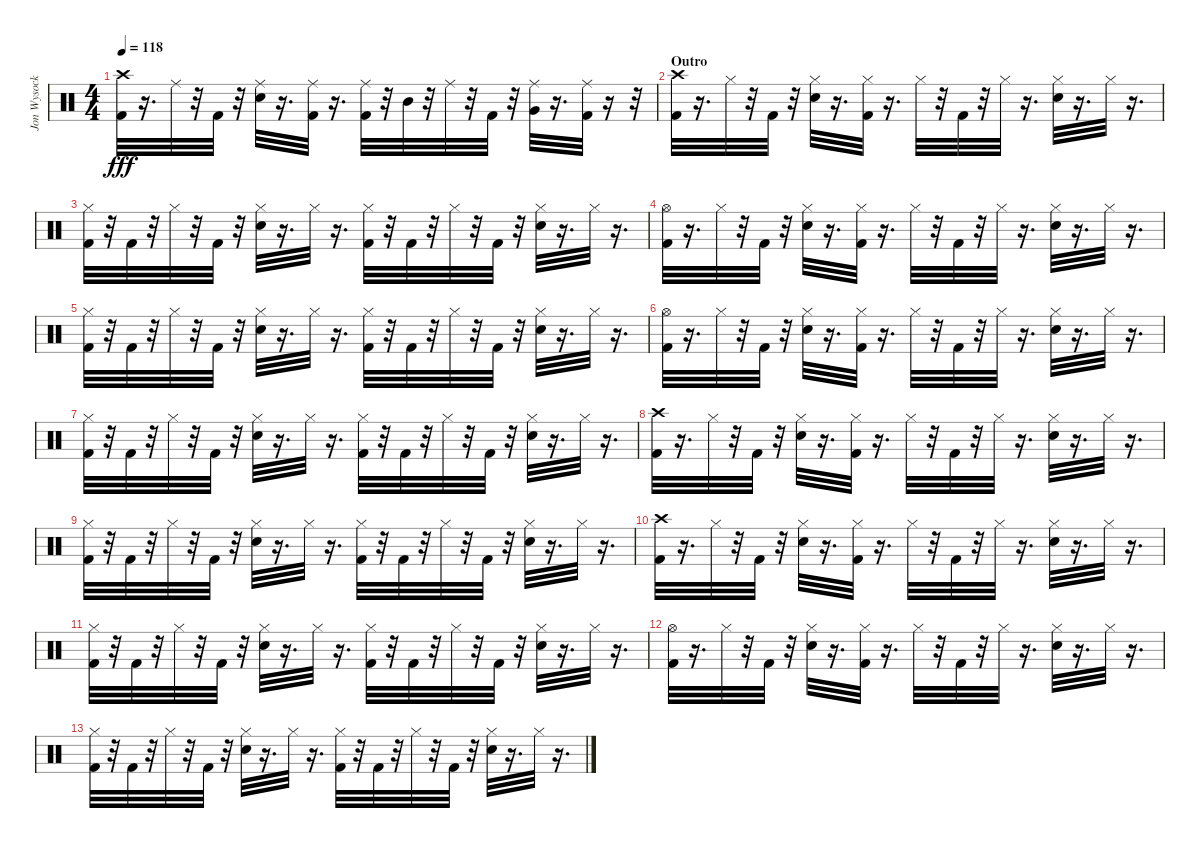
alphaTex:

\track ("Jon Wysocki - Drums" "Jon Wysock") {instrument percussion}
\staff {score}
\articulation defaults
\ts (4 4)
\tempo 118
\clef neutral
\ks c
("Crash high (hit)" "Kick (hit) 2").32{dy fff} r.16{d} "Ride (middle)".32 r.32 "Kick (hit) 2".32 r.32 ("Ride (middle)" "Electric Snare (hit)").32 r.16{d} ("Ride (middle)" "Kick (hit) 2").32 r.16{d} ("Ride (middle)" "Kick (hit) 2").32 r.32 "Mid Tom (hit)".32 r.32 "Ride (middle)".32 r.32 "Kick (hit) 2".32 r.32 ("Very Low Tom (hit)" "Ride (middle)").32 r.16{d} ("Kick (hit) 2" "Ride (middle)").32 r.16 r.32 |
\section ("" "Outro")
("Crash high (hit)" "Kick (hit) 2").32 r.16{d} "Hi-Hat (closed)".32 r.32 "Kick (hit) 2".32 r.32 ("Electric Snare (hit)" "Hi-Hat (closed)").32 r.16{d} ("Hi-Hat (closed)" "Kick (hit) 2").32 r.16{d} "Hi-Hat (closed)".32 r.32 "Kick (hit) 2".32 r.32 "Hi-Hat (closed)".32 r.16{d} ("Electric Snare (hit)" "Hi-Hat (closed)").32 r.16{d} "Hi-Hat (closed)".32 r.16{d} |
("Hi-Hat (closed)" "Kick (hit) 2").32 r.32 "Kick (hit) 2".32 r.32 "Hi-Hat (closed)".32 r.32 "Kick (hit) 2".32 r.32 ("Hi-Hat (closed)" "Electric Snare (hit)").32 r.16{d} "Hi-Hat (closed)".32 r.16{d} ("Hi-Hat (closed)" "Kick (hit) 2").32 r.32 "Kick (hit) 2".32 r.32 "Hi-Hat (closed)".32 r.32 "Kick (hit) 2".32 r.32 ("Hi-Hat (closed)" "Electric Snare (hit)").32 r.16{d} "Hi-Hat (closed)".32 r.16{d} |
("Kick (hit) 2" "Hi-Hat (open)").32 r.16{d} "Hi-Hat (closed)".32 r.32 "Kick (hit) 2".32 r.32 ("Electric Snare (hit)" "Hi-Hat (closed)").32 r.16{d} ("Hi-Hat (closed)" "Kick (hit) 2").32 r.16{d} "Hi-Hat (closed)".32 r.32 "Kick (hit) 2".32 r.32 "Hi-Hat (closed)".32 r.16{d} ("Electric Snare (hit)" "Hi-Hat (closed)").32 r.16{d} "Hi-Hat (closed)".32 r.16{d} |
("Hi-Hat (closed)" "Kick (hit) 2").32 r.32 "Kick (hit) 2".32 r.32 "Hi-Hat (closed)".32 r.32 "Kick (hit) 2".32 r.32 ("Hi-Hat (closed)" "Electric Snare (hit)").32 r.16{d} "Hi-Hat (closed)".32 r.16{d} ("Hi-Hat (closed)" "Kick (hit) 2").32 r.32 "Kick (hit) 2".32 r.32 "Hi-Hat (closed)".32 r.32 "Kick (hit) 2".32 r.32 ("Hi-Hat (closed)" "Electric Snare (hit)").32 r.16{d} "Hi-Hat (closed)".32 r.16{d} |
("Kick (hit) 2" "Hi-Hat (open)").32 r.16{d} "Hi-Hat (closed)".32 r.32 "Kick (hit) 2".32 r.32 ("Electric Snare (hit)" "Hi-Hat (closed)").32 r.16{d} ("Hi-Hat (closed)" "Kick (hit) 2").32 r.16{d} "Hi-Hat (closed)".32 r.32 "Kick (hit) 2".32 r.32 "Hi-Hat (closed)".32 r.16{d} ("Electric Snare (hit)" "Hi-Hat (closed)").32 r.16{d} "Hi-Hat (closed)".32 r.16{d} |
("Hi-Hat (closed)" "Kick (hit) 2").32 r.32 "Kick (hit) 2".32 r.32 "Hi-Hat (closed)".32 r.32 "Kick (hit) 2".32 r.32 ("Hi-Hat (closed)" "Electric Snare (hit)").32 r.16{d} "Hi-Hat (closed)".32 r.16{d} ("Hi-Hat (closed)" "Kick (hit) 2").32 r.32 "Kick (hit) 2".32 r.32 "Hi-Hat (closed)".32 r.32 "Kick (hit) 2".32 r.32 ("Hi-Hat (closed)" "Electric Snare (hit)").32 r.16{d} "Hi-Hat (closed)".32 r.16{d} |
("Crash high (hit)" "Kick (hit) 2").32 r.16{d} "Hi-Hat (closed)".32 r.32 "Kick (hit) 2".32 r.32 ("Electric Snare (hit)" "Hi-Hat (closed)").32 r.16{d} ("Hi-Hat (closed)" "Kick (hit) 2").32 r.16{d} "Hi-Hat (closed)".32 r.32 "Kick (hit) 2".32 r.32 "Hi-Hat (closed)".32 r.16{d} ("Electric Snare (hit)" "Hi-Hat (closed)").32 r.16{d} "Hi-Hat (closed)".32 r.16{d} |
("Hi-Hat (closed)" "Kick (hit) 2").32 r.32 "Kick (hit) 2".32 r.32 "Hi-Hat (closed)".32 r.32 "Kick (hit) 2".32 r.32 ("Hi-Hat (closed)" "Electric Snare (hit)").32 r.16{d} "Hi-Hat (closed)".32 r.16{d} ("Hi-Hat (closed)" "Kick (hit) 2").32 r.32 "Kick (hit) 2".32 r.32 "Hi-Hat (closed)".32 r.32 "Kick (hit) 2".32 r.32 ("Hi-Hat (closed)" "Electric Snare (hit)").32 r.16{d} "Hi-Hat (closed)".32 r.16{d} |
("Crash high (hit)" "Kick (hit) 2").32{volume 13} r.16{d} "Hi-Hat (closed)".32 r.32 "Kick (hit) 2".32 r.32 ("Electric Snare (hit)" "Hi-Hat (closed)").32 r.16{d} ("Hi-Hat (closed)" "Kick (hit) 2").32 r.16{d} "Hi-Hat (closed)".32{volume 10} r.32 "Kick (hit) 2".32 r.32 "Hi-Hat (closed)".32 r.16{d} ("Electric Snare (hit)" "Hi-Hat (closed)").32 r.16{d} "Hi-Hat (closed)".32 r.16{d} |
("Hi-Hat (closed)" "Kick (hit) 2").32{volume 7} r.32 "Kick (hit) 2".32 r.32 "Hi-Hat (closed)".32 r.32 "Kick (hit) 2".32 r.32 ("Hi-Hat (closed)" "Electric Snare (hit)").32 r.16{d} "Hi-Hat (closed)".32 r.16{d} ("Hi-Hat (closed)" "Kick (hit) 2").32{volume 5} r.32 "Kick (hit) 2".32 r.32 "Hi-Hat (closed)".32 r.32 "Kick (hit) 2".32 r.32 ("Hi-Hat (closed)" "Electric Snare (hit)").32 r.16{d} "Hi-Hat (closed)".32 r.16{d} |
("Kick (hit) 2" "Hi-Hat (open)").32 r.16{d volume 4} "Hi-Hat (closed)".32 r.32 "Kick (hit) 2".32 r.32 ("Electric Snare (hit)" "Hi-Hat (closed)").32 r.16{d} ("Hi-Hat (closed)" "Kick (hit) 2").32 r.16{d} "Hi-Hat (closed)".32{volume 3} r.32 "Kick (hit) 2".32 r.32 "Hi-Hat (closed)".32 r.16{d} ("Electric Snare (hit)" "Hi-Hat (closed)").32 r.16{d} "Hi-Hat (closed)".32 r.16{d} |
("Hi-Hat (closed)" "Kick (hit) 2").32 r.32{volume 2} "Kick (hit) 2".32 r.32 "Hi-Hat (closed)".32 r.32 "Kick (hit) 2".32 r.32 ("Hi-Hat (closed)" "Electric Snare (hit)").32 r.16{d} "Hi-Hat (closed)".32 r.16{d} ("Hi-Hat (closed)" "Kick (hit) 2").32{volume 1} r.32 "Kick (hit) 2".32 r.32 "Hi-Hat (closed)".32 r.32 "Kick (hit) 2".32 r.32 ("Hi-Hat (closed)" "Electric Snare (hit)").32 r.16{d} "Hi-Hat (closed)".32 r.16{d}
